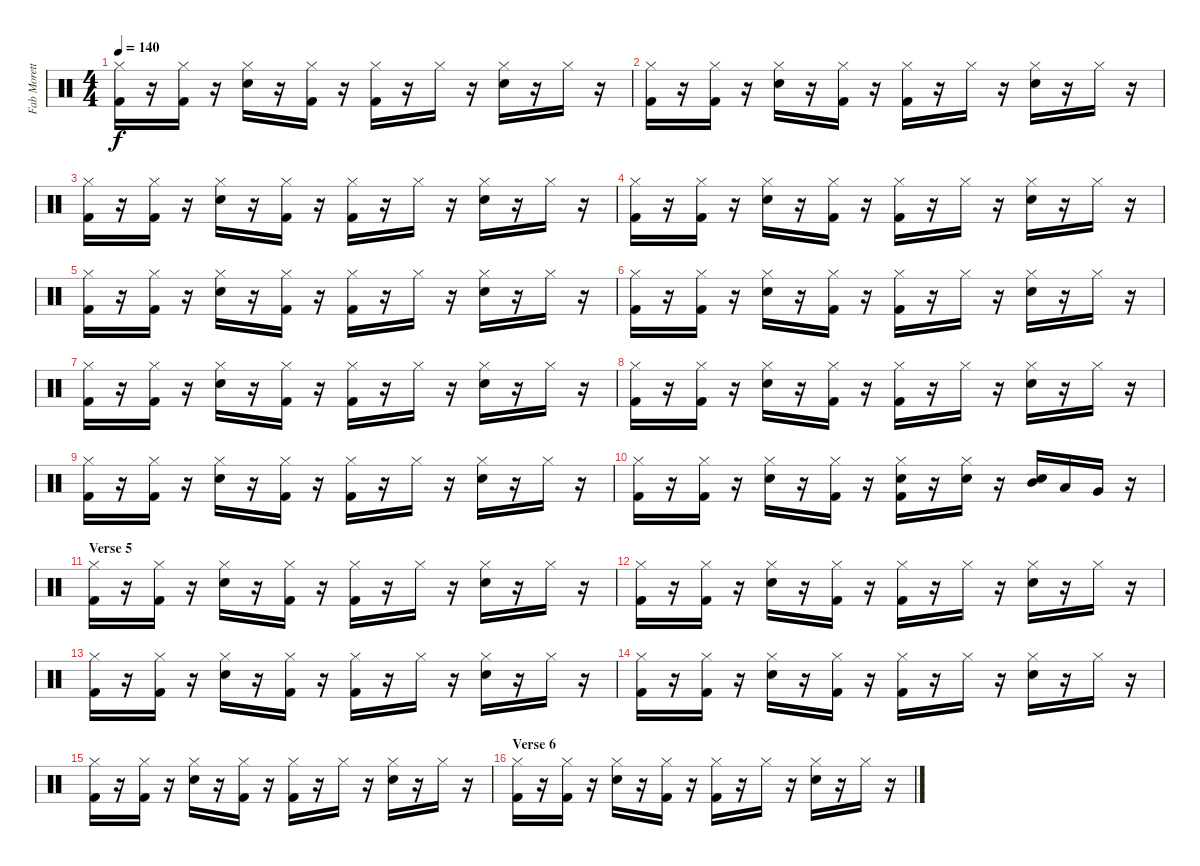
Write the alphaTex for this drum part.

\track ("Fab Moretti - Drums" "Fab Morett") {instrument percussion}
\staff {score}
\articulation defaults
\ts (4 4)
\tempo 140
\clef neutral
\ks c
("Hi-Hat (closed)" "Kick (hit) 2").16{dy f} r.16 ("Hi-Hat (closed)" "Kick (hit) 2").16 r.16 ("Hi-Hat (closed)" "Snare (hit) 2").16 r.16 ("Hi-Hat (closed)" "Kick (hit) 2").16 r.16 ("Hi-Hat (closed)" "Kick (hit) 2").16 r.16 "Hi-Hat (closed)".16 r.16 ("Hi-Hat (closed)" "Snare (hit) 2").16 r.16 "Hi-Hat (closed)".16 r.16 |
("Hi-Hat (closed)" "Kick (hit) 2").16 r.16 ("Hi-Hat (closed)" "Kick (hit) 2").16 r.16 ("Hi-Hat (closed)" "Snare (hit) 2").16 r.16 ("Hi-Hat (closed)" "Kick (hit) 2").16 r.16 ("Hi-Hat (closed)" "Kick (hit) 2").16 r.16 "Hi-Hat (closed)".16 r.16 ("Hi-Hat (closed)" "Snare (hit) 2").16 r.16 "Hi-Hat (closed)".16 r.16 |
("Hi-Hat (closed)" "Kick (hit) 2").16 r.16 ("Hi-Hat (closed)" "Kick (hit) 2").16 r.16 ("Hi-Hat (closed)" "Snare (hit) 2").16 r.16 ("Hi-Hat (closed)" "Kick (hit) 2").16 r.16 ("Hi-Hat (closed)" "Kick (hit) 2").16 r.16 "Hi-Hat (closed)".16 r.16 ("Hi-Hat (closed)" "Snare (hit) 2").16 r.16 "Hi-Hat (closed)".16 r.16 |
("Hi-Hat (closed)" "Kick (hit) 2").16 r.16 ("Hi-Hat (closed)" "Kick (hit) 2").16 r.16 ("Hi-Hat (closed)" "Snare (hit) 2").16 r.16 ("Hi-Hat (closed)" "Kick (hit) 2").16 r.16 ("Hi-Hat (closed)" "Kick (hit) 2").16 r.16 "Hi-Hat (closed)".16 r.16 ("Hi-Hat (closed)" "Snare (hit) 2").16 r.16 "Hi-Hat (closed)".16 r.16 |
("Hi-Hat (closed)" "Kick (hit) 2").16 r.16 ("Hi-Hat (closed)" "Kick (hit) 2").16 r.16 ("Hi-Hat (closed)" "Snare (hit) 2").16 r.16 ("Hi-Hat (closed)" "Kick (hit) 2").16 r.16 ("Hi-Hat (closed)" "Kick (hit) 2").16 r.16 "Hi-Hat (closed)".16 r.16 ("Hi-Hat (closed)" "Snare (hit) 2").16 r.16 "Hi-Hat (closed)".16 r.16 |
("Hi-Hat (closed)" "Kick (hit) 2").16 r.16 ("Hi-Hat (closed)" "Kick (hit) 2").16 r.16 ("Hi-Hat (closed)" "Snare (hit) 2").16 r.16 ("Hi-Hat (closed)" "Kick (hit) 2").16 r.16 ("Hi-Hat (closed)" "Kick (hit) 2").16 r.16 "Hi-Hat (closed)".16 r.16 ("Hi-Hat (closed)" "Snare (hit) 2").16 r.16 "Hi-Hat (closed)".16 r.16 |
("Hi-Hat (closed)" "Kick (hit) 2").16 r.16 ("Hi-Hat (closed)" "Kick (hit) 2").16 r.16 ("Hi-Hat (closed)" "Snare (hit) 2").16 r.16 ("Hi-Hat (closed)" "Kick (hit) 2").16 r.16 ("Hi-Hat (closed)" "Kick (hit) 2").16 r.16 "Hi-Hat (closed)".16 r.16 ("Hi-Hat (closed)" "Snare (hit) 2").16 r.16 "Hi-Hat (closed)".16 r.16 |
("Hi-Hat (closed)" "Kick (hit) 2").16 r.16 ("Hi-Hat (closed)" "Kick (hit) 2").16 r.16 ("Hi-Hat (closed)" "Snare (hit) 2").16 r.16 ("Hi-Hat (closed)" "Kick (hit) 2").16 r.16 ("Hi-Hat (closed)" "Kick (hit) 2").16 r.16 "Hi-Hat (closed)".16 r.16 ("Hi-Hat (closed)" "Snare (hit) 2").16 r.16 "Hi-Hat (closed)".16 r.16 |
("Hi-Hat (closed)" "Kick (hit) 2").16 r.16 ("Hi-Hat (closed)" "Kick (hit) 2").16 r.16 ("Hi-Hat (closed)" "Snare (hit) 2").16 r.16 ("Hi-Hat (closed)" "Kick (hit) 2").16 r.16 ("Hi-Hat (closed)" "Kick (hit) 2").16 r.16 "Hi-Hat (closed)".16 r.16 ("Hi-Hat (closed)" "Snare (hit) 2").16 r.16 "Hi-Hat (closed)".16 r.16 |
("Hi-Hat (closed)" "Kick (hit) 2").16 r.16 ("Hi-Hat (closed)" "Kick (hit) 2").16 r.16 ("Hi-Hat (closed)" "Snare (hit) 2").16 r.16 ("Hi-Hat (closed)" "Kick (hit) 2").16 r.16 ("Hi-Hat (closed)" "Snare (hit) 2" "Kick (hit) 2").16 r.16 ("Hi-Hat (closed)" "Snare (hit) 2").16 r.16 ("Snare (hit) 2" "Mid Tom (hit)").16 "Low Tom (hit)".16 "Very Low Tom (hit)".16 r.16 |
\section ("" "Verse 5")
("Hi-Hat (closed)" "Kick (hit) 2").16 r.16 ("Hi-Hat (closed)" "Kick (hit) 2").16 r.16 ("Hi-Hat (closed)" "Snare (hit) 2").16 r.16 ("Hi-Hat (closed)" "Kick (hit) 2").16 r.16 ("Hi-Hat (closed)" "Kick (hit) 2").16 r.16 "Hi-Hat (closed)".16 r.16 ("Hi-Hat (closed)" "Snare (hit) 2").16 r.16 "Hi-Hat (closed)".16 r.16 |
("Hi-Hat (closed)" "Kick (hit) 2").16 r.16 ("Hi-Hat (closed)" "Kick (hit) 2").16 r.16 ("Hi-Hat (closed)" "Snare (hit) 2").16 r.16 ("Hi-Hat (closed)" "Kick (hit) 2").16 r.16 ("Hi-Hat (closed)" "Kick (hit) 2").16 r.16 "Hi-Hat (closed)".16 r.16 ("Hi-Hat (closed)" "Snare (hit) 2").16 r.16 "Hi-Hat (closed)".16 r.16 |
("Hi-Hat (closed)" "Kick (hit) 2").16 r.16 ("Hi-Hat (closed)" "Kick (hit) 2").16 r.16 ("Hi-Hat (closed)" "Snare (hit) 2").16 r.16 ("Hi-Hat (closed)" "Kick (hit) 2").16 r.16 ("Hi-Hat (closed)" "Kick (hit) 2").16 r.16 "Hi-Hat (closed)".16 r.16 ("Hi-Hat (closed)" "Snare (hit) 2").16 r.16 "Hi-Hat (closed)".16 r.16 |
("Hi-Hat (closed)" "Kick (hit) 2").16 r.16 ("Hi-Hat (closed)" "Kick (hit) 2").16 r.16 ("Hi-Hat (closed)" "Snare (hit) 2").16 r.16 ("Hi-Hat (closed)" "Kick (hit) 2").16 r.16 ("Hi-Hat (closed)" "Kick (hit) 2").16 r.16 "Hi-Hat (closed)".16 r.16 ("Hi-Hat (closed)" "Snare (hit) 2").16 r.16 "Hi-Hat (closed)".16 r.16 |
("Hi-Hat (closed)" "Kick (hit) 2").16 r.16 ("Hi-Hat (closed)" "Kick (hit) 2").16 r.16 ("Hi-Hat (closed)" "Snare (hit) 2").16 r.16 ("Hi-Hat (closed)" "Kick (hit) 2").16 r.16 ("Hi-Hat (closed)" "Kick (hit) 2").16 r.16 "Hi-Hat (closed)".16 r.16 ("Hi-Hat (closed)" "Snare (hit) 2").16 r.16 "Hi-Hat (closed)".16 r.16 |
\section ("" "Verse 6")
("Hi-Hat (closed)" "Kick (hit) 2").16 r.16 ("Hi-Hat (closed)" "Kick (hit) 2").16 r.16 ("Hi-Hat (closed)" "Snare (hit) 2").16 r.16 ("Hi-Hat (closed)" "Kick (hit) 2").16 r.16 ("Hi-Hat (closed)" "Kick (hit) 2").16 r.16 "Hi-Hat (closed)".16 r.16 ("Hi-Hat (closed)" "Snare (hit) 2").16 r.16 "Hi-Hat (closed)".16 r.16
